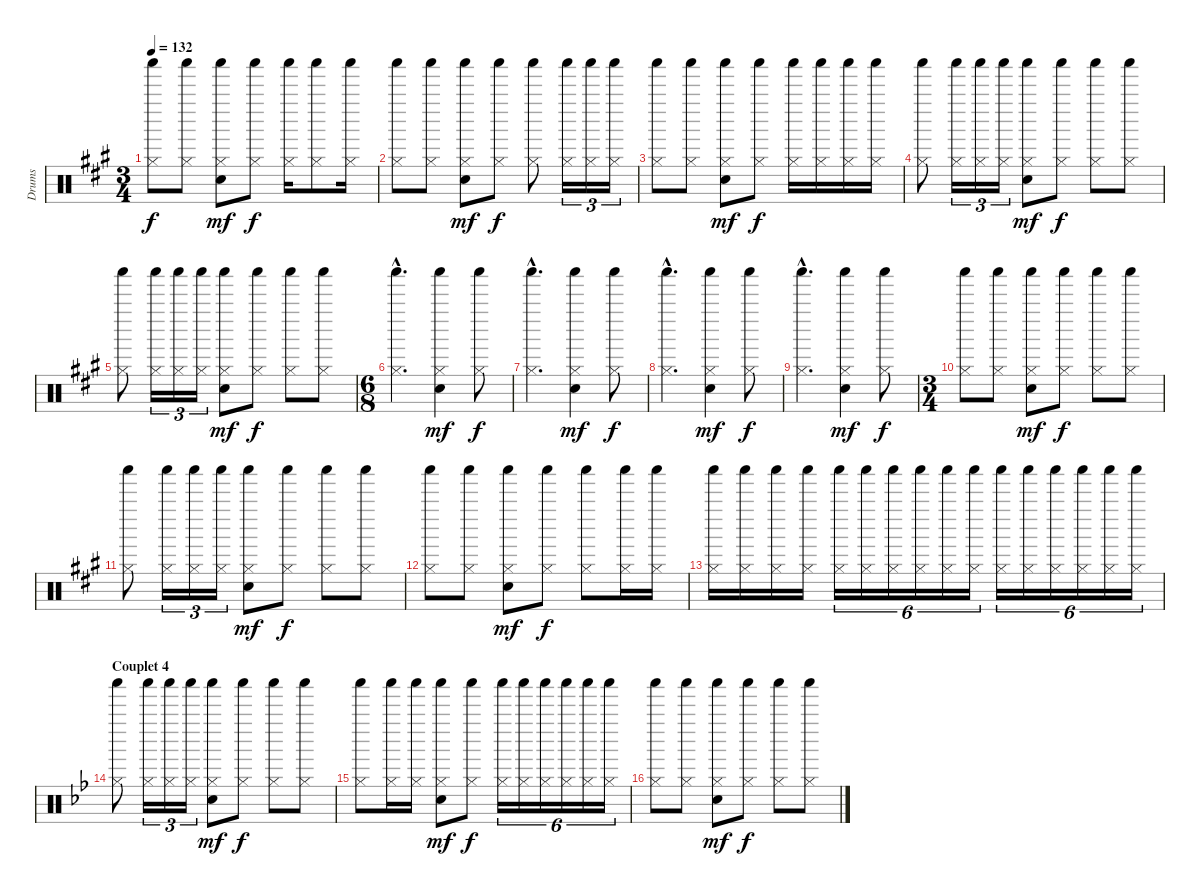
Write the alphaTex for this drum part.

\track ("Drums" "Drums") {instrument percussion}
\staff {score}
\articulation defaults
\ts (3 4)
\tempo 132
\clef neutral
\ks a
("Shaker (hit)" "Hi-Hat (closed)").8{dy f} ("Shaker (hit)" "Hi-Hat (closed)").8 ("Shaker (hit)" "Hi-Hat (closed)" "Electric Snare (hit)").8{dy mf} ("Shaker (hit)" "Hi-Hat (closed)").8{dy f} ("Shaker (hit)" "Hi-Hat (closed)").16 ("Shaker (hit)" "Hi-Hat (closed)").8 ("Shaker (hit)" "Hi-Hat (closed)").16 |
("Shaker (hit)" "Hi-Hat (closed)").8 ("Shaker (hit)" "Hi-Hat (closed)").8 ("Shaker (hit)" "Hi-Hat (closed)" "Electric Snare (hit)").8{dy mf} ("Shaker (hit)" "Hi-Hat (closed)").8{dy f} ("Shaker (hit)" "Hi-Hat (closed)").8 ("Shaker (hit)" "Hi-Hat (closed)").16{tu (3 2)} ("Shaker (hit)" "Hi-Hat (closed)").16{tu (3 2)} ("Shaker (hit)" "Hi-Hat (closed)").16{tu (3 2)} |
("Shaker (hit)" "Hi-Hat (closed)").8 ("Shaker (hit)" "Hi-Hat (closed)").8 ("Shaker (hit)" "Hi-Hat (closed)" "Electric Snare (hit)").8{dy mf} ("Shaker (hit)" "Hi-Hat (closed)").8{dy f} ("Shaker (hit)" "Hi-Hat (closed)").16 ("Shaker (hit)" "Hi-Hat (closed)").16 ("Shaker (hit)" "Hi-Hat (closed)").16 ("Shaker (hit)" "Hi-Hat (closed)").16 |
("Shaker (hit)" "Hi-Hat (closed)").8 ("Shaker (hit)" "Hi-Hat (closed)").16{tu (3 2)} ("Shaker (hit)" "Hi-Hat (closed)").16{tu (3 2)} ("Shaker (hit)" "Hi-Hat (closed)").16{tu (3 2)} ("Shaker (hit)" "Hi-Hat (closed)" "Electric Snare (hit)").8{dy mf} ("Shaker (hit)" "Hi-Hat (closed)").8{dy f} ("Shaker (hit)" "Hi-Hat (closed)").8 ("Shaker (hit)" "Hi-Hat (closed)").8 |
("Shaker (hit)" "Hi-Hat (closed)").8 ("Shaker (hit)" "Hi-Hat (closed)").16{tu (3 2)} ("Shaker (hit)" "Hi-Hat (closed)").16{tu (3 2)} ("Shaker (hit)" "Hi-Hat (closed)").16{tu (3 2)} ("Shaker (hit)" "Hi-Hat (closed)" "Electric Snare (hit)").8{dy mf} ("Shaker (hit)" "Hi-Hat (closed)").8{dy f} ("Shaker (hit)" "Hi-Hat (closed)").8 ("Shaker (hit)" "Hi-Hat (closed)").8 |
\ts (6 8)
("Shaker (hit)"{hac} "Hi-Hat (closed)"{hac}).4{d} ("Shaker (hit)" "Hi-Hat (closed)" "Electric Snare (hit)").4{dy mf} ("Shaker (hit)" "Hi-Hat (closed)").8{dy f} |
("Shaker (hit)"{hac} "Hi-Hat (closed)"{hac}).4{d} ("Shaker (hit)" "Hi-Hat (closed)" "Electric Snare (hit)").4{dy mf} ("Shaker (hit)" "Hi-Hat (closed)").8{dy f} |
("Shaker (hit)"{hac} "Hi-Hat (closed)"{hac}).4{d} ("Shaker (hit)" "Hi-Hat (closed)" "Electric Snare (hit)").4{dy mf} ("Shaker (hit)" "Hi-Hat (closed)").8{dy f} |
("Shaker (hit)"{hac} "Hi-Hat (closed)"{hac}).4{d} ("Shaker (hit)" "Hi-Hat (closed)" "Electric Snare (hit)").4{dy mf} ("Shaker (hit)" "Hi-Hat (closed)").8{dy f} |
\ts (3 4)
("Shaker (hit)" "Hi-Hat (closed)").8 ("Shaker (hit)" "Hi-Hat (closed)").8 ("Shaker (hit)" "Hi-Hat (closed)" "Electric Snare (hit)").8{dy mf} ("Shaker (hit)" "Hi-Hat (closed)").8{dy f} ("Shaker (hit)" "Hi-Hat (closed)").8 ("Shaker (hit)" "Hi-Hat (closed)").8 |
("Shaker (hit)" "Hi-Hat (closed)").8 ("Shaker (hit)" "Hi-Hat (closed)").16{tu (3 2)} ("Shaker (hit)" "Hi-Hat (closed)").16{tu (3 2)} ("Shaker (hit)" "Hi-Hat (closed)").16{tu (3 2)} ("Shaker (hit)" "Hi-Hat (closed)" "Electric Snare (hit)").8{dy mf} ("Shaker (hit)" "Hi-Hat (closed)").8{dy f} ("Shaker (hit)" "Hi-Hat (closed)").8 ("Shaker (hit)" "Hi-Hat (closed)").8 |
("Shaker (hit)" "Hi-Hat (closed)").8 ("Shaker (hit)" "Hi-Hat (closed)").8 ("Shaker (hit)" "Hi-Hat (closed)" "Electric Snare (hit)").8{dy mf} ("Shaker (hit)" "Hi-Hat (closed)").8{dy f} ("Shaker (hit)" "Hi-Hat (closed)").8 ("Shaker (hit)" "Hi-Hat (closed)").16 ("Shaker (hit)" "Hi-Hat (closed)").16 |
("Shaker (hit)" "Hi-Hat (closed)").16 ("Shaker (hit)" "Hi-Hat (closed)").16 ("Shaker (hit)" "Hi-Hat (closed)").16 ("Shaker (hit)" "Hi-Hat (closed)").16 ("Shaker (hit)" "Hi-Hat (closed)").16{tu (6 4)} ("Shaker (hit)" "Hi-Hat (closed)").16{tu (6 4)} ("Shaker (hit)" "Hi-Hat (closed)").16{tu (6 4)} ("Shaker (hit)" "Hi-Hat (closed)").16{tu (6 4)} ("Shaker (hit)" "Hi-Hat (closed)").16{tu (6 4)} ("Shaker (hit)" "Hi-Hat (closed)").16{tu (6 4)} ("Shaker (hit)" "Hi-Hat (closed)").16{tu (6 4)} ("Shaker (hit)" "Hi-Hat (closed)").16{tu (6 4)} ("Shaker (hit)" "Hi-Hat (closed)").16{tu (6 4)} ("Shaker (hit)" "Hi-Hat (closed)").16{tu (6 4)} ("Shaker (hit)" "Hi-Hat (closed)").16{tu (6 4)} ("Shaker (hit)" "Hi-Hat (closed)").16{tu (6 4)} |
\section ("" "Couplet 4")
\ks bb
("Shaker (hit)" "Hi-Hat (closed)").8 ("Shaker (hit)" "Hi-Hat (closed)").16{tu (3 2)} ("Shaker (hit)" "Hi-Hat (closed)").16{tu (3 2)} ("Shaker (hit)" "Hi-Hat (closed)").16{tu (3 2)} ("Shaker (hit)" "Hi-Hat (closed)" "Electric Snare (hit)").8{dy mf} ("Shaker (hit)" "Hi-Hat (closed)").8{dy f} ("Shaker (hit)" "Hi-Hat (closed)").8 ("Shaker (hit)" "Hi-Hat (closed)").8 |
("Shaker (hit)" "Hi-Hat (closed)").8 ("Shaker (hit)" "Hi-Hat (closed)").16 ("Shaker (hit)" "Hi-Hat (closed)").16 ("Shaker (hit)" "Hi-Hat (closed)" "Electric Snare (hit)").8{dy mf} ("Shaker (hit)" "Hi-Hat (closed)").8{dy f} ("Shaker (hit)" "Hi-Hat (closed)").16{tu (6 4)} ("Shaker (hit)" "Hi-Hat (closed)").16{tu (6 4)} ("Shaker (hit)" "Hi-Hat (closed)").16{tu (6 4)} ("Shaker (hit)" "Hi-Hat (closed)").16{tu (6 4)} ("Shaker (hit)" "Hi-Hat (closed)").16{tu (6 4)} ("Shaker (hit)" "Hi-Hat (closed)").16{tu (6 4)} |
("Shaker (hit)" "Hi-Hat (closed)").8 ("Shaker (hit)" "Hi-Hat (closed)").8 ("Shaker (hit)" "Hi-Hat (closed)" "Electric Snare (hit)").8{dy mf} ("Shaker (hit)" "Hi-Hat (closed)").8{dy f} ("Shaker (hit)" "Hi-Hat (closed)").8 ("Shaker (hit)" "Hi-Hat (closed)").8
